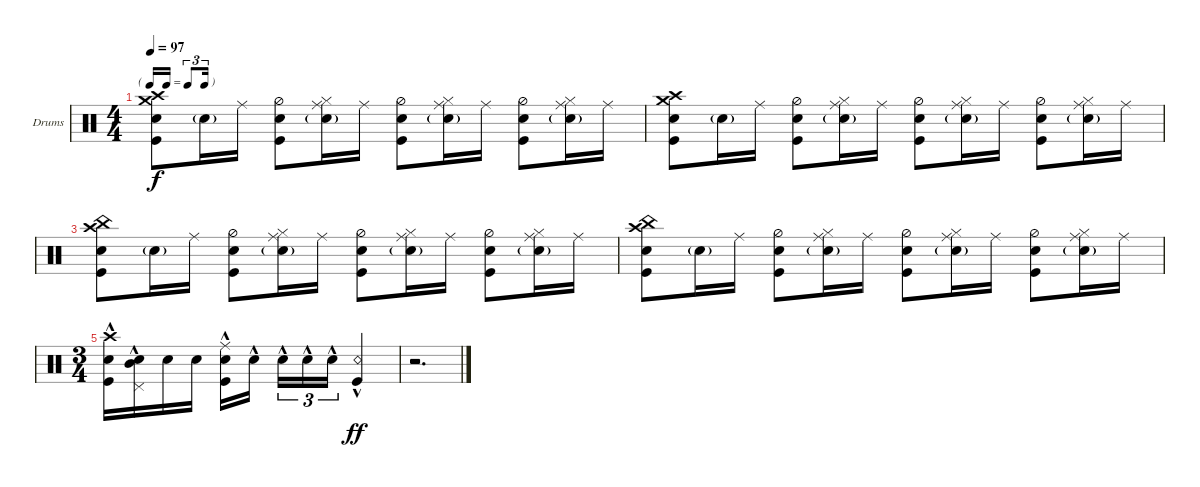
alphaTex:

\defaultSystemsLayout 4
\bracketExtendMode nobrackets
\firstSystemTrackNameOrientation horizontal
\otherSystemsTrackNameOrientation horizontal
\defaultBarNumberDisplay FirstOfSystem
\track ("Drums" "Drums") {instrument percussion}
\staff {score}
\articulation defaults
\ts (4 4)
\tf triplet16th
\tempo 97
\clef neutral
\ks c
("Snare (hit) 2" "Kick (hit)" "Crash medium (hit)" "Crash high (hit)").8{dy f} "Snare (hit) 2"{g}.16 "Ride (middle)".16 ("Snare (hit) 2" "Kick (hit)" "Hi-Hat (half)").8 ("Hi-Hat (closed)" "Snare (hit) 2"{g} "Ride (middle)").16 "Ride (middle)".16 ("Kick (hit)" "Snare (hit) 2" "Hi-Hat (half)").8 ("Hi-Hat (closed)" "Snare (hit) 2"{g} "Ride (middle)").16 "Ride (middle)".16 ("Snare (hit) 2" "Kick (hit)" "Hi-Hat (half)").8 ("Hi-Hat (closed)" "Snare (hit) 2"{g} "Ride (middle)").16 "Ride (middle)".16 |
("Snare (hit) 2" "Kick (hit)" "Crash medium (hit)" "Crash high (hit)").8 "Snare (hit) 2"{g}.16 "Ride (middle)".16 ("Snare (hit) 2" "Kick (hit)" "Hi-Hat (half)").8 ("Hi-Hat (closed)" "Snare (hit) 2"{g} "Ride (middle)").16 "Ride (middle)".16 ("Kick (hit)" "Snare (hit) 2" "Hi-Hat (half)").8 ("Hi-Hat (closed)" "Snare (hit) 2"{g} "Ride (middle)").16 "Ride (middle)".16 ("Snare (hit) 2" "Kick (hit)" "Hi-Hat (half)").8 ("Hi-Hat (closed)" "Snare (hit) 2"{g} "Ride (middle)").16 "Ride (middle)".16 |
("Snare (hit) 2" "Kick (hit)" "Crash high (hit)" "China (hit)").8 "Snare (hit) 2"{g}.16 "Ride (middle)".16 ("Snare (hit) 2" "Kick (hit)" "Hi-Hat (half)").8 ("Hi-Hat (closed)" "Snare (hit) 2"{g} "Ride (middle)").16 "Ride (middle)".16 ("Kick (hit)" "Snare (hit) 2" "Hi-Hat (half)").8 ("Hi-Hat (closed)" "Snare (hit) 2"{g} "Ride (middle)").16 "Ride (middle)".16 ("Snare (hit) 2" "Kick (hit)" "Hi-Hat (half)").8 ("Hi-Hat (closed)" "Snare (hit) 2"{g} "Ride (middle)").16 "Ride (middle)".16 |
("Snare (hit) 2" "Kick (hit)" "China (hit)" "Crash high (hit)").8 "Snare (hit) 2"{g}.16 "Ride (middle)".16 ("Snare (hit) 2" "Kick (hit)" "Hi-Hat (half)").8 ("Hi-Hat (closed)" "Snare (hit) 2"{g} "Ride (middle)").16 "Ride (middle)".16 ("Kick (hit)" "Snare (hit) 2" "Hi-Hat (half)").8 ("Hi-Hat (closed)" "Snare (hit) 2"{g} "Ride (middle)").16 "Ride (middle)".16 ("Snare (hit) 2" "Kick (hit)" "Hi-Hat (half)").8 ("Hi-Hat (closed)" "Snare (hit) 2"{g} "Ride (middle)").16 "Ride (middle)".16 |
\ts (3 4)
("Snare (hit) 2" "Kick (hit)" "Crash high (hit)"{hac}).16 ("Snare (hit) 2"{hac} "Pedal Hi-Hat (hit)" "Mid Tom (hit)").16 "Snare (hit) 2".16 "Snare (hit) 2".16 ("Kick (hit)"{hac} "Snare (hit) 2"{hac} "Ride (middle)").16{beam merge} "Snare (hit) 2"{hac}.16{beam split} "Snare (hit) 2"{hac}.16{tu (3 2)} "Snare (hit) 2"{hac}.16{tu (3 2)} "Snare (hit) 2"{hac}.16{tu (3 2)} ("Snare (rim shot)"{hac} "Kick (hit)"{hac}).4{dy ff} |
r.2{d}
